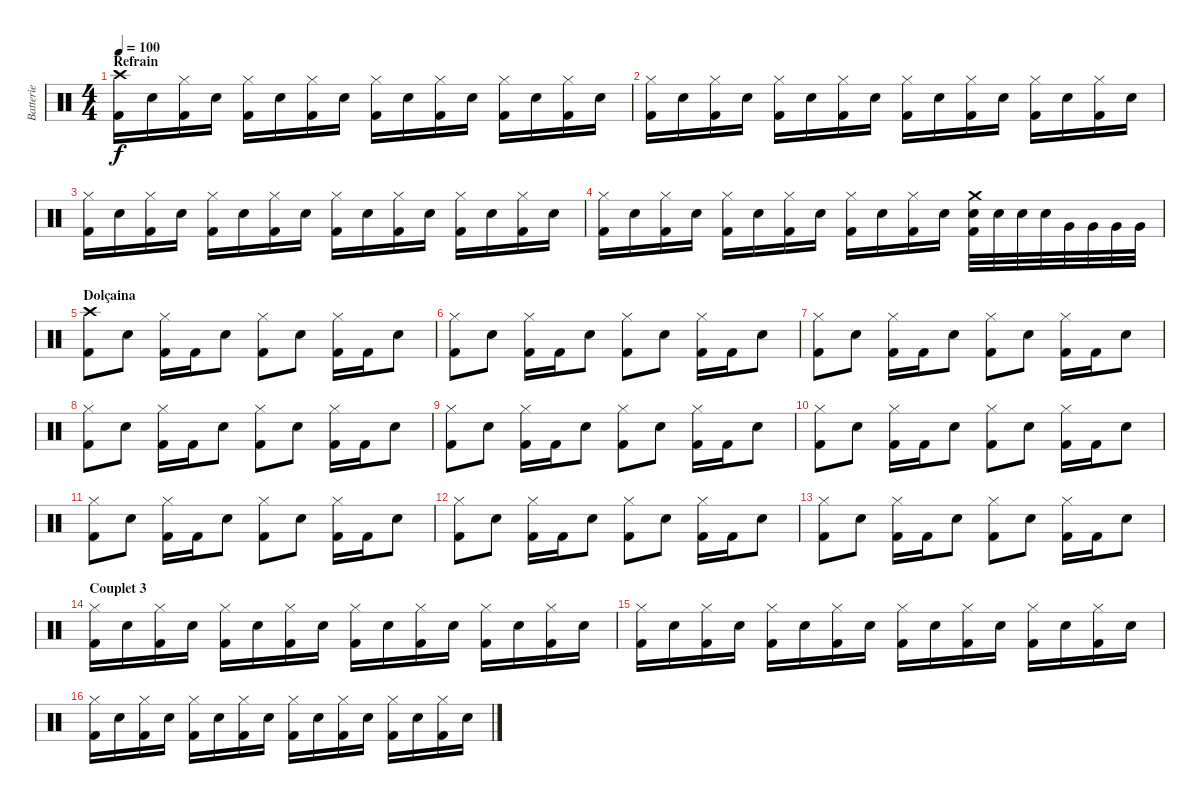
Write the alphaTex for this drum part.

\track ("Batterie" "Batterie") {instrument percussion}
\staff {score}
\articulation defaults
\ts (4 4)
\section ("" "Refrain")
\tempo 100
\clef neutral
\ks c
("Crash high (hit)" "Kick (hit) 2").16{dy f} "Snare (hit) 2".16 ("Hi-Hat (closed)" "Kick (hit) 2").16 "Snare (hit) 2".16 ("Hi-Hat (closed)" "Kick (hit) 2").16 "Snare (hit) 2".16 ("Hi-Hat (closed)" "Kick (hit) 2").16 "Snare (hit) 2".16 ("Hi-Hat (closed)" "Kick (hit) 2").16 "Snare (hit) 2".16 ("Hi-Hat (closed)" "Kick (hit) 2").16 "Snare (hit) 2".16 ("Hi-Hat (closed)" "Kick (hit) 2").16 "Snare (hit) 2".16 ("Hi-Hat (closed)" "Kick (hit) 2").16 "Snare (hit) 2".16 |
("Hi-Hat (closed)" "Kick (hit) 2").16 "Snare (hit) 2".16 ("Hi-Hat (closed)" "Kick (hit) 2").16 "Snare (hit) 2".16 ("Hi-Hat (closed)" "Kick (hit) 2").16 "Snare (hit) 2".16 ("Hi-Hat (closed)" "Kick (hit) 2").16 "Snare (hit) 2".16 ("Hi-Hat (closed)" "Kick (hit) 2").16 "Snare (hit) 2".16 ("Hi-Hat (closed)" "Kick (hit) 2").16 "Snare (hit) 2".16 ("Hi-Hat (closed)" "Kick (hit) 2").16 "Snare (hit) 2".16 ("Hi-Hat (closed)" "Kick (hit) 2").16 "Snare (hit) 2".16 |
("Hi-Hat (closed)" "Kick (hit) 2").16 "Snare (hit) 2".16 ("Hi-Hat (closed)" "Kick (hit) 2").16 "Snare (hit) 2".16 ("Hi-Hat (closed)" "Kick (hit) 2").16 "Snare (hit) 2".16 ("Hi-Hat (closed)" "Kick (hit) 2").16 "Snare (hit) 2".16 ("Hi-Hat (closed)" "Kick (hit) 2").16 "Snare (hit) 2".16 ("Hi-Hat (closed)" "Kick (hit) 2").16 "Snare (hit) 2".16 ("Hi-Hat (closed)" "Kick (hit) 2").16 "Snare (hit) 2".16 ("Hi-Hat (closed)" "Kick (hit) 2").16 "Snare (hit) 2".16 |
("Hi-Hat (closed)" "Kick (hit) 2").16 "Snare (hit) 2".16 ("Hi-Hat (closed)" "Kick (hit) 2").16 "Snare (hit) 2".16 ("Hi-Hat (closed)" "Kick (hit) 2").16 "Snare (hit) 2".16 ("Hi-Hat (closed)" "Kick (hit) 2").16 "Snare (hit) 2".16 ("Hi-Hat (closed)" "Kick (hit) 2").16 "Snare (hit) 2".16 ("Hi-Hat (closed)" "Kick (hit) 2").16 "Snare (hit) 2".16 ("Crash medium (hit)" "Snare (hit) 2" "Kick (hit) 2").32 "Snare (hit) 2".32 "Snare (hit) 2".32 "Snare (hit) 2".32 "Very Low Tom (hit)".32 "Very Low Tom (hit)".32 "Very Low Tom (hit)".32 "Very Low Tom (hit)".32 |
\section ("" "Dolçaina")
("Crash high (hit)" "Kick (hit) 2").8 "Snare (hit) 2".8 ("Hi-Hat (closed)" "Kick (hit) 2").16 "Kick (hit) 2".16 "Snare (hit) 2".8 ("Hi-Hat (closed)" "Kick (hit) 2").8 "Snare (hit) 2".8 ("Hi-Hat (closed)" "Kick (hit) 2").16 "Kick (hit) 2".16 "Snare (hit) 2".8 |
("Hi-Hat (closed)" "Kick (hit) 2").8 "Snare (hit) 2".8 ("Hi-Hat (closed)" "Kick (hit) 2").16 "Kick (hit) 2".16 "Snare (hit) 2".8 ("Hi-Hat (closed)" "Kick (hit) 2").8 "Snare (hit) 2".8 ("Hi-Hat (closed)" "Kick (hit) 2").16 "Kick (hit) 2".16 "Snare (hit) 2".8 |
("Hi-Hat (closed)" "Kick (hit) 2").8 "Snare (hit) 2".8 ("Hi-Hat (closed)" "Kick (hit) 2").16 "Kick (hit) 2".16 "Snare (hit) 2".8 ("Hi-Hat (closed)" "Kick (hit) 2").8 "Snare (hit) 2".8 ("Hi-Hat (closed)" "Kick (hit) 2").16 "Kick (hit) 2".16 "Snare (hit) 2".8 |
("Hi-Hat (closed)" "Kick (hit) 2").8 "Snare (hit) 2".8 ("Hi-Hat (closed)" "Kick (hit) 2").16 "Kick (hit) 2".16 "Snare (hit) 2".8 ("Hi-Hat (closed)" "Kick (hit) 2").8 "Snare (hit) 2".8 ("Hi-Hat (closed)" "Kick (hit) 2").16 "Kick (hit) 2".16 "Snare (hit) 2".8 |
("Hi-Hat (closed)" "Kick (hit) 2").8 "Snare (hit) 2".8 ("Hi-Hat (closed)" "Kick (hit) 2").16 "Kick (hit) 2".16 "Snare (hit) 2".8 ("Hi-Hat (closed)" "Kick (hit) 2").8 "Snare (hit) 2".8 ("Hi-Hat (closed)" "Kick (hit) 2").16 "Kick (hit) 2".16 "Snare (hit) 2".8 |
("Hi-Hat (closed)" "Kick (hit) 2").8 "Snare (hit) 2".8 ("Hi-Hat (closed)" "Kick (hit) 2").16 "Kick (hit) 2".16 "Snare (hit) 2".8 ("Hi-Hat (closed)" "Kick (hit) 2").8 "Snare (hit) 2".8 ("Hi-Hat (closed)" "Kick (hit) 2").16 "Kick (hit) 2".16 "Snare (hit) 2".8 |
("Hi-Hat (closed)" "Kick (hit) 2").8 "Snare (hit) 2".8 ("Hi-Hat (closed)" "Kick (hit) 2").16 "Kick (hit) 2".16 "Snare (hit) 2".8 ("Hi-Hat (closed)" "Kick (hit) 2").8 "Snare (hit) 2".8 ("Hi-Hat (closed)" "Kick (hit) 2").16 "Kick (hit) 2".16 "Snare (hit) 2".8 |
("Hi-Hat (closed)" "Kick (hit) 2").8 "Snare (hit) 2".8 ("Hi-Hat (closed)" "Kick (hit) 2").16 "Kick (hit) 2".16 "Snare (hit) 2".8 ("Hi-Hat (closed)" "Kick (hit) 2").8 "Snare (hit) 2".8 ("Hi-Hat (closed)" "Kick (hit) 2").16 "Kick (hit) 2".16 "Snare (hit) 2".8 |
("Hi-Hat (closed)" "Kick (hit) 2").8 "Snare (hit) 2".8 ("Hi-Hat (closed)" "Kick (hit) 2").16 "Kick (hit) 2".16 "Snare (hit) 2".8 ("Hi-Hat (closed)" "Kick (hit) 2").8 "Snare (hit) 2".8 ("Hi-Hat (closed)" "Kick (hit) 2").16 "Kick (hit) 2".16 "Snare (hit) 2".8 |
\section ("" "Couplet 3")
("Hi-Hat (closed)" "Kick (hit) 2").16 "Snare (hit) 2".16 ("Hi-Hat (closed)" "Kick (hit) 2").16 "Snare (hit) 2".16 ("Hi-Hat (closed)" "Kick (hit) 2").16 "Snare (hit) 2".16 ("Hi-Hat (closed)" "Kick (hit) 2").16 "Snare (hit) 2".16 ("Hi-Hat (closed)" "Kick (hit) 2").16 "Snare (hit) 2".16 ("Hi-Hat (closed)" "Kick (hit) 2").16 "Snare (hit) 2".16 ("Hi-Hat (closed)" "Kick (hit) 2").16 "Snare (hit) 2".16 ("Hi-Hat (closed)" "Kick (hit) 2").16 "Snare (hit) 2".16 |
("Hi-Hat (closed)" "Kick (hit) 2").16 "Snare (hit) 2".16 ("Hi-Hat (closed)" "Kick (hit) 2").16 "Snare (hit) 2".16 ("Hi-Hat (closed)" "Kick (hit) 2").16 "Snare (hit) 2".16 ("Hi-Hat (closed)" "Kick (hit) 2").16 "Snare (hit) 2".16 ("Hi-Hat (closed)" "Kick (hit) 2").16 "Snare (hit) 2".16 ("Hi-Hat (closed)" "Kick (hit) 2").16 "Snare (hit) 2".16 ("Hi-Hat (closed)" "Kick (hit) 2").16 "Snare (hit) 2".16 ("Hi-Hat (closed)" "Kick (hit) 2").16 "Snare (hit) 2".16 |
("Hi-Hat (closed)" "Kick (hit) 2").16 "Snare (hit) 2".16 ("Hi-Hat (closed)" "Kick (hit) 2").16 "Snare (hit) 2".16 ("Hi-Hat (closed)" "Kick (hit) 2").16 "Snare (hit) 2".16 ("Hi-Hat (closed)" "Kick (hit) 2").16 "Snare (hit) 2".16 ("Hi-Hat (closed)" "Kick (hit) 2").16 "Snare (hit) 2".16 ("Hi-Hat (closed)" "Kick (hit) 2").16 "Snare (hit) 2".16 ("Hi-Hat (closed)" "Kick (hit) 2").16 "Snare (hit) 2".16 ("Hi-Hat (closed)" "Kick (hit) 2").16 "Snare (hit) 2".16
